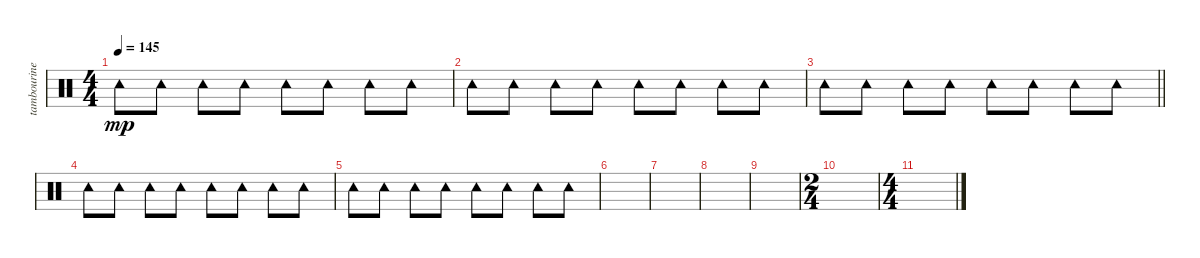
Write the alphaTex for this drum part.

\track ("tambourine" "tambourine") {instrument percussion}
\staff {score}
\articulation defaults
\ts (4 4)
\tempo 145
\clef neutral
\ks c "Tambourine (hit)".8{dy mp} "Tambourine (hit)".8 "Tambourine (hit)".8 "Tambourine (hit)".8 "Tambourine (hit)".8 "Tambourine (hit)".8 "Tambourine (hit)".8 "Tambourine (hit)".8
|
"Tambourine (hit)".8 "Tambourine (hit)".8 "Tambourine (hit)".8 "Tambourine (hit)".8 "Tambourine (hit)".8 "Tambourine (hit)".8 "Tambourine (hit)".8 "Tambourine (hit)".8 |
\barLineRight lightlight "Tambourine (hit)".8 "Tambourine (hit)".8 "Tambourine (hit)".8 "Tambourine (hit)".8 "Tambourine (hit)".8 "Tambourine (hit)".8 "Tambourine (hit)".8 "Tambourine (hit)".8
|
\section ("" "")
"Tambourine (hit)".8 "Tambourine (hit)".8 "Tambourine (hit)".8 "Tambourine (hit)".8 "Tambourine (hit)".8 "Tambourine (hit)".8 "Tambourine (hit)".8 "Tambourine (hit)".8 |
"Tambourine (hit)".8 "Tambourine (hit)".8 "Tambourine (hit)".8 "Tambourine (hit)".8 "Tambourine (hit)".8 "Tambourine (hit)".8 "Tambourine (hit)".8 "Tambourine (hit)".8 |
|
|
|
|
\ts (2 4)
|
\ts (4 4)
